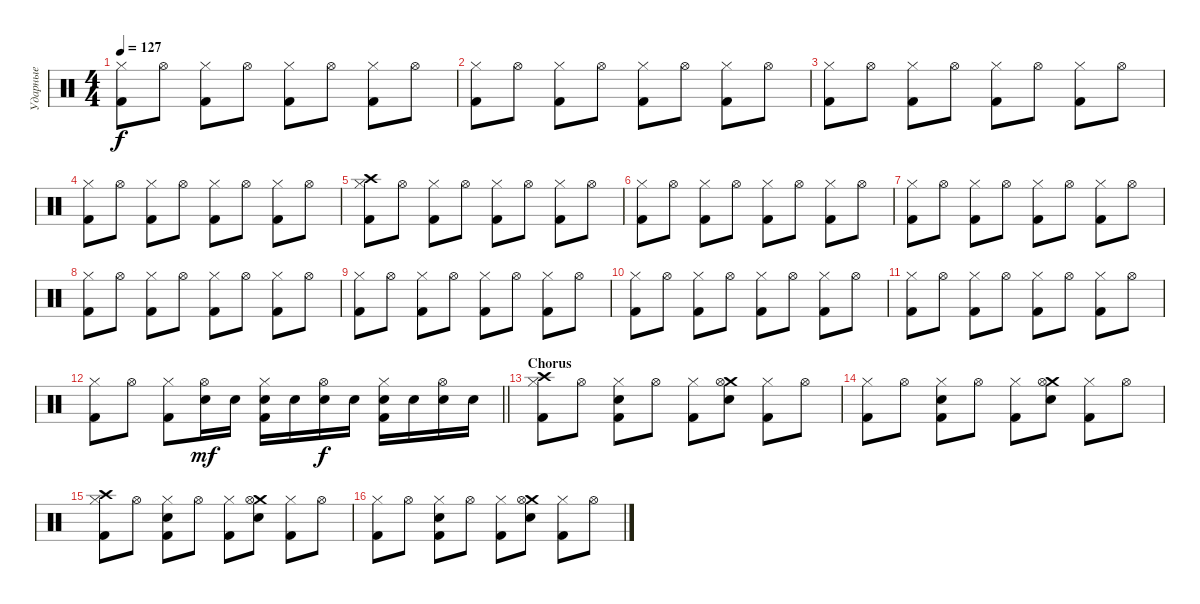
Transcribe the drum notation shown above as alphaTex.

\track ("Ударные" "Ударные") {instrument percussion}
\staff {score}
\articulation defaults
\ts (4 4)
\tempo 127
\clef neutral
\ks c
("Hi-Hat (closed)" "Kick (hit) 2").8{dy f} "Hi-Hat (open)".8 ("Hi-Hat (closed)" "Kick (hit) 2").8 "Hi-Hat (open)".8 ("Hi-Hat (closed)" "Kick (hit) 2").8 "Hi-Hat (open)".8 ("Hi-Hat (closed)" "Kick (hit) 2").8 "Hi-Hat (open)".8 |
("Hi-Hat (closed)" "Kick (hit) 2").8 "Hi-Hat (open)".8 ("Hi-Hat (closed)" "Kick (hit) 2").8 "Hi-Hat (open)".8 ("Hi-Hat (closed)" "Kick (hit) 2").8 "Hi-Hat (open)".8 ("Hi-Hat (closed)" "Kick (hit) 2").8 "Hi-Hat (open)".8 |
("Hi-Hat (closed)" "Kick (hit) 2").8 "Hi-Hat (open)".8 ("Hi-Hat (closed)" "Kick (hit) 2").8 "Hi-Hat (open)".8 ("Hi-Hat (closed)" "Kick (hit) 2").8 "Hi-Hat (open)".8 ("Hi-Hat (closed)" "Kick (hit) 2").8 "Hi-Hat (open)".8 |
("Hi-Hat (closed)" "Kick (hit) 2").8 "Hi-Hat (open)".8 ("Hi-Hat (closed)" "Kick (hit) 2").8 "Hi-Hat (open)".8 ("Hi-Hat (closed)" "Kick (hit) 2").8 "Hi-Hat (open)".8 ("Hi-Hat (closed)" "Kick (hit) 2").8 "Hi-Hat (open)".8 |
("Crash high (hit)" "Hi-Hat (closed)" "Kick (hit) 2").8 "Hi-Hat (open)".8 ("Hi-Hat (closed)" "Kick (hit) 2").8 "Hi-Hat (open)".8 ("Hi-Hat (closed)" "Kick (hit) 2").8 "Hi-Hat (open)".8 ("Hi-Hat (closed)" "Kick (hit) 2").8 "Hi-Hat (open)".8 |
("Hi-Hat (closed)" "Kick (hit) 2").8 "Hi-Hat (open)".8 ("Hi-Hat (closed)" "Kick (hit) 2").8 "Hi-Hat (open)".8 ("Hi-Hat (closed)" "Kick (hit) 2").8 "Hi-Hat (open)".8 ("Hi-Hat (closed)" "Kick (hit) 2").8 "Hi-Hat (open)".8 |
("Hi-Hat (closed)" "Kick (hit) 2").8 "Hi-Hat (open)".8 ("Hi-Hat (closed)" "Kick (hit) 2").8 "Hi-Hat (open)".8 ("Hi-Hat (closed)" "Kick (hit) 2").8 "Hi-Hat (open)".8 ("Hi-Hat (closed)" "Kick (hit) 2").8 "Hi-Hat (open)".8 |
("Hi-Hat (closed)" "Kick (hit) 2").8 "Hi-Hat (open)".8 ("Hi-Hat (closed)" "Kick (hit) 2").8 "Hi-Hat (open)".8 ("Hi-Hat (closed)" "Kick (hit) 2").8 "Hi-Hat (open)".8 ("Hi-Hat (closed)" "Kick (hit) 2").8 "Hi-Hat (open)".8 |
("Hi-Hat (closed)" "Kick (hit) 2").8 "Hi-Hat (open)".8 ("Hi-Hat (closed)" "Kick (hit) 2").8 "Hi-Hat (open)".8 ("Hi-Hat (closed)" "Kick (hit) 2").8 "Hi-Hat (open)".8 ("Hi-Hat (closed)" "Kick (hit) 2").8 "Hi-Hat (open)".8 |
("Hi-Hat (closed)" "Kick (hit) 2").8 "Hi-Hat (open)".8 ("Hi-Hat (closed)" "Kick (hit) 2").8 "Hi-Hat (open)".8 ("Hi-Hat (closed)" "Kick (hit) 2").8 "Hi-Hat (open)".8 ("Hi-Hat (closed)" "Kick (hit) 2").8 "Hi-Hat (open)".8 |
("Hi-Hat (closed)" "Kick (hit) 2").8 "Hi-Hat (open)".8 ("Hi-Hat (closed)" "Kick (hit) 2").8 "Hi-Hat (open)".8 ("Hi-Hat (closed)" "Kick (hit) 2").8 "Hi-Hat (open)".8 ("Hi-Hat (closed)" "Kick (hit) 2").8 "Hi-Hat (open)".8 |
\barLineRight lightlight
("Hi-Hat (closed)" "Kick (hit) 2").8 "Hi-Hat (open)".8 ("Hi-Hat (closed)" "Kick (hit) 2").8 ("Hi-Hat (open)" "Electric Snare (hit)").16{dy mf} "Electric Snare (hit)".16 ("Hi-Hat (closed)" "Electric Snare (hit)" "Kick (hit) 2").16 "Electric Snare (hit)".16 ("Hi-Hat (open)" "Electric Snare (hit)").16{dy f} "Electric Snare (hit)".16 ("Hi-Hat (closed)" "Electric Snare (hit)" "Kick (hit) 2").16 "Electric Snare (hit)".16 ("Hi-Hat (open)" "Electric Snare (hit)").16 "Electric Snare (hit)".16 |
\section ("" "Chorus")
("Crash high (hit)" "Hi-Hat (closed)" "Kick (hit) 2").8 "Hi-Hat (open)".8 ("Hi-Hat (closed)" "Electric Snare (hit)" "Kick (hit) 2").8 "Hi-Hat (open)".8 ("Hi-Hat (closed)" "Kick (hit) 2").8 ("Crash medium (hit)" "Hi-Hat (open)" "Electric Snare (hit)").8 ("Hi-Hat (closed)" "Kick (hit) 2").8 "Hi-Hat (open)".8 |
("Hi-Hat (closed)" "Kick (hit) 2").8 "Hi-Hat (open)".8 ("Hi-Hat (closed)" "Electric Snare (hit)" "Kick (hit) 2").8 "Hi-Hat (open)".8 ("Hi-Hat (closed)" "Kick (hit) 2").8 ("Crash medium (hit)" "Hi-Hat (open)" "Electric Snare (hit)").8 ("Hi-Hat (closed)" "Kick (hit) 2").8 "Hi-Hat (open)".8 |
("Crash high (hit)" "Hi-Hat (closed)" "Kick (hit) 2").8 "Hi-Hat (open)".8 ("Hi-Hat (closed)" "Electric Snare (hit)" "Kick (hit) 2").8 "Hi-Hat (open)".8 ("Hi-Hat (closed)" "Kick (hit) 2").8 ("Crash medium (hit)" "Hi-Hat (open)" "Electric Snare (hit)").8 ("Hi-Hat (closed)" "Kick (hit) 2").8 "Hi-Hat (open)".8 |
("Hi-Hat (closed)" "Kick (hit) 2").8 "Hi-Hat (open)".8 ("Hi-Hat (closed)" "Electric Snare (hit)" "Kick (hit) 2").8 "Hi-Hat (open)".8 ("Hi-Hat (closed)" "Kick (hit) 2").8 ("Crash medium (hit)" "Hi-Hat (open)" "Electric Snare (hit)").8 ("Hi-Hat (closed)" "Kick (hit) 2").8 "Hi-Hat (open)".8
